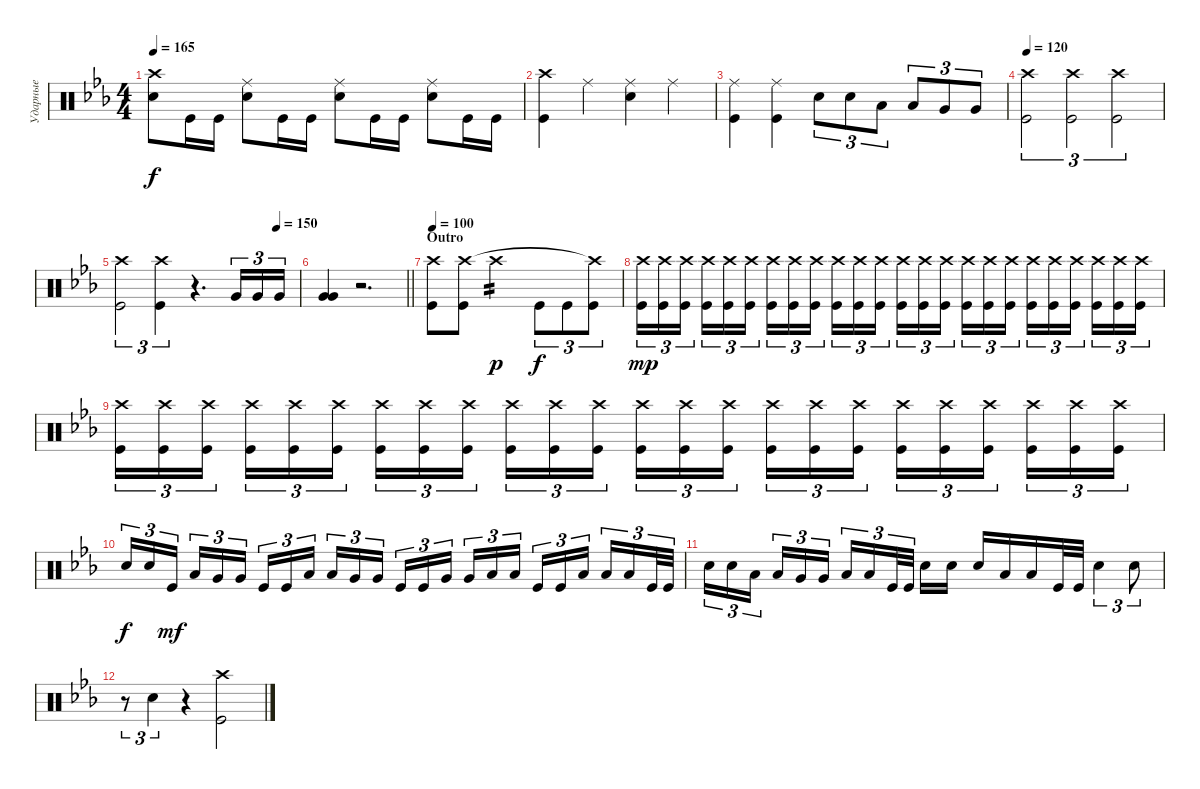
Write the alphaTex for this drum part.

\track ("Ударные" "Ударные") {instrument percussion}
\staff {score}
\articulation defaults
\ts (4 4)
\tempo 165
\clef neutral
\ks cminor
("Snare (hit) 2" "Crash high (hit)").8{dy f} "Kick (hit)".16 "Kick (hit)".16 ("Snare (hit) 2" "Ride (middle)").8 "Kick (hit)".16 "Kick (hit)".16 ("Snare (hit) 2" "Ride (middle)").8 "Kick (hit)".16 "Kick (hit)".16 ("Snare (hit) 2" "Ride (middle)").8 "Kick (hit)".16 "Kick (hit)".16 |
("Kick (hit)" "Crash high (hit)").4 "Ride (middle)".4 ("Ride (middle)" "Snare (hit) 2").4 "Ride (middle)".4 |
("Kick (hit)" "Ride (middle)").4 ("Kick (hit)" "Ride (middle)").4 "Snare (hit) 2".8{tu (3 2)} "Snare (hit) 2".8{tu (3 2)} "Low Tom (hit)".8{tu (3 2)} "Low Tom (hit)".8{tu (3 2)} "Very Low Tom (hit)".8{tu (3 2)} "Very Low Tom (hit)".8{tu (3 2)} |
\tempo 120
("Kick (hit)" "Crash high (hit)").2{tu (3 2)} ("Kick (hit)" "Crash high (hit)").2{tu (3 2)} ("Kick (hit)" "Crash high (hit)").2{tu (3 2)} |
\tempo (150 0.875)
("Kick (hit)" "Crash high (hit)").2{tu (3 2)} ("Kick (hit)" "Crash high (hit)").4{tu (3 2)} r.4{d} "Very Low Tom (hit)".16{tu (3 2)} "Very Low Tom (hit)".16{tu (3 2)} "Very Low Tom (hit)".16{tu (3 2)} |
\barLineRight lightlight
("Very Low Tom (hit)" "Very Low Tom (hit)").4{bd 240} r.2{d} |
\section ("" "Outro")
\tempo 100
("Kick (hit)" "Crash high (hit)").8 ("Kick (hit)" "Crash high (hit)").8 "Crash high (hit)".2{tp 2 dy p} "Kick (hit)".8{tu (3 2) dy f} "Kick (hit)".8{tu (3 2)} ("Kick (hit)" "Crash high (hit)"{t}).8{tu (3 2)} |
("Kick (hit)" "Crash high (hit)").16{tu (3 2) dy mp} ("Kick (hit)" "Crash high (hit)").16{tu (3 2)} ("Kick (hit)" "Crash high (hit)").16{tu (3 2) beam splitsecondary} ("Kick (hit)" "Crash high (hit)").16{tu (3 2)} ("Kick (hit)" "Crash high (hit)").16{tu (3 2)} ("Kick (hit)" "Crash high (hit)").16{tu (3 2)} ("Kick (hit)" "Crash high (hit)").16{tu (3 2)} ("Kick (hit)" "Crash high (hit)").16{tu (3 2)} ("Kick (hit)" "Crash high (hit)").16{tu (3 2) beam splitsecondary} ("Kick (hit)" "Crash high (hit)").16{tu (3 2)} ("Kick (hit)" "Crash high (hit)").16{tu (3 2)} ("Crash high (hit)" "Kick (hit)").16{tu (3 2)} ("Kick (hit)" "Crash high (hit)").16{tu (3 2)} ("Kick (hit)" "Crash high (hit)").16{tu (3 2)} ("Kick (hit)" "Crash high (hit)").16{tu (3 2) beam splitsecondary} ("Kick (hit)" "Crash high (hit)").16{tu (3 2)} ("Kick (hit)" "Crash high (hit)").16{tu (3 2)} ("Kick (hit)" "Crash high (hit)").16{tu (3 2)} ("Kick (hit)" "Crash high (hit)").16{tu (3 2)} ("Kick (hit)" "Crash high (hit)").16{tu (3 2)} ("Kick (hit)" "Crash high (hit)").16{tu (3 2) beam splitsecondary} ("Kick (hit)" "Crash high (hit)").16{tu (3 2)} ("Kick (hit)" "Crash high (hit)").16{tu (3 2)} ("Kick (hit)" "Crash high (hit)").16{tu (3 2)} |
("Kick (hit)" "Crash high (hit)").16{tu (3 2)} ("Kick (hit)" "Crash high (hit)").16{tu (3 2)} ("Kick (hit)" "Crash high (hit)").16{tu (3 2) beam splitsecondary} ("Kick (hit)" "Crash high (hit)").16{tu (3 2)} ("Kick (hit)" "Crash high (hit)").16{tu (3 2)} ("Kick (hit)" "Crash high (hit)").16{tu (3 2)} ("Kick (hit)" "Crash high (hit)").16{tu (3 2)} ("Kick (hit)" "Crash high (hit)").16{tu (3 2)} ("Kick (hit)" "Crash high (hit)").16{tu (3 2) beam splitsecondary} ("Kick (hit)" "Crash high (hit)").16{tu (3 2)} ("Kick (hit)" "Crash high (hit)").16{tu (3 2)} ("Crash high (hit)" "Kick (hit)").16{tu (3 2)} ("Kick (hit)" "Crash high (hit)").16{tu (3 2)} ("Kick (hit)" "Crash high (hit)").16{tu (3 2)} ("Kick (hit)" "Crash high (hit)").16{tu (3 2) beam splitsecondary} ("Kick (hit)" "Crash high (hit)").16{tu (3 2)} ("Kick (hit)" "Crash high (hit)").16{tu (3 2)} ("Kick (hit)" "Crash high (hit)").16{tu (3 2)} ("Kick (hit)" "Crash high (hit)").16{tu (3 2)} ("Kick (hit)" "Crash high (hit)").16{tu (3 2)} ("Kick (hit)" "Crash high (hit)").16{tu (3 2) beam splitsecondary} ("Kick (hit)" "Crash high (hit)").16{tu (3 2)} ("Kick (hit)" "Crash high (hit)").16{tu (3 2)} ("Kick (hit)" "Crash high (hit)").16{tu (3 2)} |
"Snare (hit) 2".16{tu (3 2) dy f} "Snare (hit) 2".16{tu (3 2)} "Kick (hit)".16{tu (3 2) dy mf beam splitsecondary} "Low Tom (hit)".16{tu (3 2)} "Very Low Tom (hit)".16{tu (3 2)} "Very Low Tom (hit)".16{tu (3 2)} "Kick (hit)".16{tu (3 2)} "Kick (hit)".16{tu (3 2)} "Low Tom (hit)".16{tu (3 2) beam splitsecondary} "Low Tom (hit)".16{tu (3 2)} "Very Low Tom (hit)".16{tu (3 2)} "Very Low Tom (hit)".16{tu (3 2)} "Kick (hit)".16{tu (3 2)} "Kick (hit)".16{tu (3 2)} "Very Low Tom (hit)".16{tu (3 2) beam splitsecondary} "Very Low Tom (hit)".16{tu (3 2)} "Low Floor Tom (hit)".16{tu (3 2)} "Low Floor Tom (hit)".16{tu (3 2)} "Kick (hit)".16{tu (3 2)} "Kick (hit)".16{tu (3 2)} "Low Tom (hit)".16{tu (3 2) beam splitsecondary} "Low Tom (hit)".16{tu (3 2)} "Low Floor Tom (hit)".16{tu (3 2)} "Kick (hit)".32{tu (3 2)} "Kick (hit)".32{tu (3 2)} |
"Snare (hit) 2".16{tu (3 2)} "Snare (hit) 2".16{tu (3 2)} "Low Tom (hit)".16{tu (3 2) beam splitsecondary} "Low Tom (hit)".16{tu (3 2)} "Very Low Tom (hit)".16{tu (3 2)} "Very Low Tom (hit)".16{tu (3 2)} "Low Floor Tom (hit)".16{tu (3 2)} "Low Floor Tom (hit)".16{tu (3 2)} "Kick (hit)".32{tu (3 2)} "Kick (hit)".32{tu (3 2) beam splitsecondary} "Snare (hit) 2".16 "Snare (hit) 2".16 "Snare (hit) 2".16 "Low Tom (hit)".16 "Low Tom (hit)".16 "Kick (hit)".32 "Kick (hit)".32 "Snare (hit) 2".4{tu (3 2)} "Snare (hit) 2".8{tu (3 2)} |
r.8{tu (3 2)} "Snare (hit) 2".4{tu (3 2)} r.4 ("Kick (hit)" "Crash high (hit)").2
